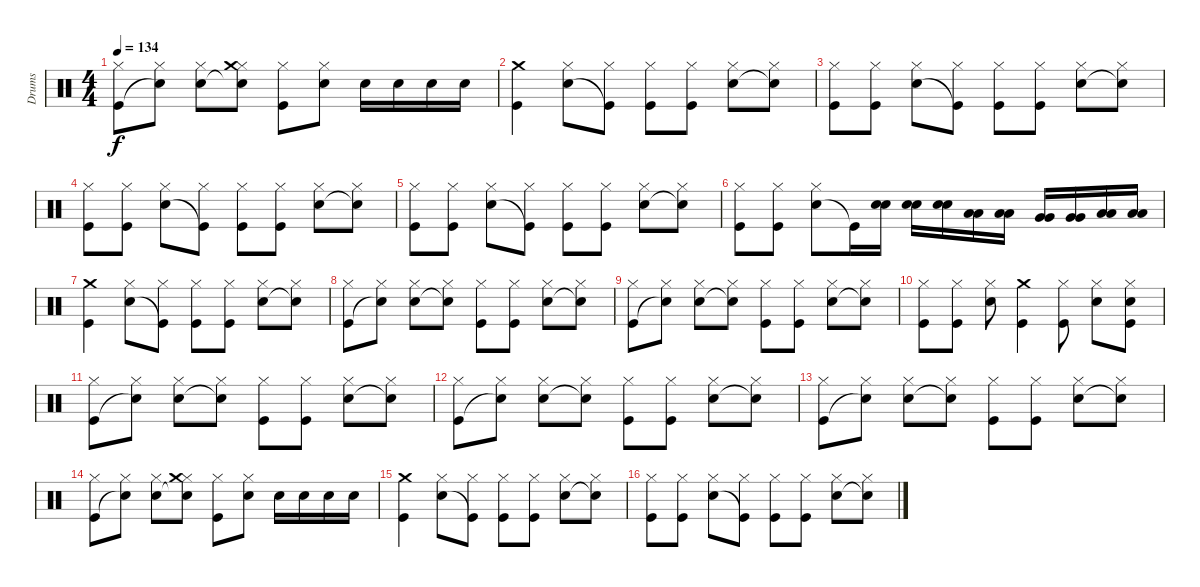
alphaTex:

\track ("Drums" "Drums") {instrument percussion}
\staff {score}
\articulation defaults
\ts (4 4)
\tempo 134
\clef neutral
\ks c
("Kick (hit)" "Hi-Hat (closed)").8{dy f} ("Snare (hit)"{t} "Hi-Hat (closed)").8 ("Snare (hit) 2" "Hi-Hat (closed)").8 ("Snare (hit)"{t} "Hi-Hat (closed)" "Crash medium (hit)").8 ("Kick (hit)" "Hi-Hat (closed)").8 ("Snare (hit) 2" "Hi-Hat (closed)").8 "Snare (hit) 2".16 "Snare (hit) 2".16 "Snare (hit) 2".16 "Snare (hit) 2".16 |
("Kick (hit)" "Crash medium (hit)").4 ("Snare (hit) 2" "Hi-Hat (closed)").8 ("Kick (hit)"{t} "Hi-Hat (closed)").8 ("Kick (hit)" "Hi-Hat (closed)").8 ("Kick (hit)" "Hi-Hat (closed)").8 ("Snare (hit) 2" "Hi-Hat (closed)").8 ("Snare (hit)"{t} "Hi-Hat (closed)").8 |
("Kick (hit)" "Hi-Hat (closed)").8 ("Kick (hit)" "Hi-Hat (closed)").8 ("Snare (hit) 2" "Hi-Hat (closed)").8 ("Kick (hit)"{t} "Hi-Hat (closed)").8 ("Kick (hit)" "Hi-Hat (closed)").8 ("Kick (hit)" "Hi-Hat (closed)").8 ("Snare (hit) 2" "Hi-Hat (closed)").8 ("Snare (hit)"{t} "Hi-Hat (closed)").8 |
("Kick (hit)" "Hi-Hat (closed)").8 ("Kick (hit)" "Hi-Hat (closed)").8 ("Snare (hit) 2" "Hi-Hat (closed)").8 ("Kick (hit)"{t} "Hi-Hat (closed)").8 ("Kick (hit)" "Hi-Hat (closed)").8 ("Kick (hit)" "Hi-Hat (closed)").8 ("Snare (hit) 2" "Hi-Hat (closed)").8 ("Snare (hit)"{t} "Hi-Hat (closed)").8 |
("Kick (hit)" "Hi-Hat (closed)").8 ("Kick (hit)" "Hi-Hat (closed)").8 ("Snare (hit) 2" "Hi-Hat (closed)").8 ("Kick (hit)"{t} "Hi-Hat (closed)").8 ("Kick (hit)" "Hi-Hat (closed)").8 ("Kick (hit)" "Hi-Hat (closed)").8 ("Snare (hit) 2" "Hi-Hat (closed)").8 ("Snare (hit)"{t} "Hi-Hat (closed)").8 |
("Kick (hit)" "Hi-Hat (closed)").8 ("Kick (hit)" "Hi-Hat (closed)").8 ("Snare (hit) 2" "Hi-Hat (closed)").8 "Kick (hit)"{t}.16 ("Snare (hit) 2" "Snare (hit) 2").16 ("Snare (hit) 2" "Snare (hit) 2").16 ("Snare (hit) 2" "Snare (hit) 2").16 ("Low Tom (hit)" "Low Tom (hit)").16 ("Low Tom (hit)" "Low Tom (hit)").16 ("Very Low Tom (hit)" "Very Low Tom (hit)").16 ("Very Low Tom (hit)" "Very Low Tom (hit)").16 ("Low Floor Tom (hit)" "Low Floor Tom (hit)").16 ("Low Floor Tom (hit)" "Low Floor Tom (hit)").16 |
("Kick (hit)" "Crash medium (hit)").4 ("Snare (hit) 2" "Hi-Hat (closed)").8 ("Kick (hit)"{t} "Hi-Hat (closed)").8 ("Kick (hit)" "Hi-Hat (closed)").8 ("Kick (hit)" "Hi-Hat (closed)").8 ("Snare (hit) 2" "Hi-Hat (closed)").8 ("Snare (hit)"{t} "Hi-Hat (closed)").8 |
("Kick (hit)" "Hi-Hat (closed)").8 ("Snare (hit)"{t} "Hi-Hat (closed)").8 ("Snare (hit) 2" "Hi-Hat (closed)").8 ("Snare (hit)"{t} "Hi-Hat (closed)").8 ("Kick (hit)" "Hi-Hat (closed)").8 ("Kick (hit)" "Hi-Hat (closed)").8 ("Snare (hit) 2" "Hi-Hat (closed)").8 ("Snare (hit)"{t} "Hi-Hat (closed)").8 |
("Kick (hit)" "Hi-Hat (closed)").8 ("Snare (hit)"{t} "Hi-Hat (closed)").8 ("Snare (hit) 2" "Hi-Hat (closed)").8 ("Snare (hit)"{t} "Hi-Hat (closed)").8 ("Kick (hit)" "Hi-Hat (closed)").8 ("Kick (hit)" "Hi-Hat (closed)").8 ("Snare (hit) 2" "Hi-Hat (closed)").8 ("Snare (hit)"{t} "Hi-Hat (closed)").8 |
("Kick (hit)" "Hi-Hat (closed)").8 ("Kick (hit)" "Hi-Hat (closed)").8 ("Snare (hit) 2" "Hi-Hat (closed)").8 ("Kick (hit)" "Crash medium (hit)").4 ("Kick (hit)" "Hi-Hat (closed)").8 ("Snare (hit) 2" "Hi-Hat (closed)").8 ("Kick (hit)" "Hi-Hat (closed)" "Snare (hit)").8 |
("Kick (hit)" "Hi-Hat (closed)").8 ("Snare (hit)"{t} "Hi-Hat (closed)").8 ("Snare (hit) 2" "Hi-Hat (closed)").8 ("Snare (hit)"{t} "Hi-Hat (closed)").8 ("Kick (hit)" "Hi-Hat (closed)").8 ("Kick (hit)" "Hi-Hat (closed)").8 ("Snare (hit) 2" "Hi-Hat (closed)").8 ("Snare (hit)"{t} "Hi-Hat (closed)").8 |
("Kick (hit)" "Hi-Hat (closed)").8 ("Snare (hit)"{t} "Hi-Hat (closed)").8 ("Snare (hit) 2" "Hi-Hat (closed)").8 ("Snare (hit)"{t} "Hi-Hat (closed)").8 ("Kick (hit)" "Hi-Hat (closed)").8 ("Kick (hit)" "Hi-Hat (closed)").8 ("Snare (hit) 2" "Hi-Hat (closed)").8 ("Snare (hit)"{t} "Hi-Hat (closed)").8 |
("Kick (hit)" "Hi-Hat (closed)").8 ("Snare (hit)"{t} "Hi-Hat (closed)").8 ("Snare (hit) 2" "Hi-Hat (closed)").8 ("Snare (hit)"{t} "Hi-Hat (closed)").8 ("Kick (hit)" "Hi-Hat (closed)").8 ("Kick (hit)" "Hi-Hat (closed)").8 ("Snare (hit) 2" "Hi-Hat (closed)").8 ("Snare (hit)"{t} "Hi-Hat (closed)").8 |
("Kick (hit)" "Hi-Hat (closed)").8 ("Snare (hit)"{t} "Hi-Hat (closed)").8 ("Snare (hit) 2" "Hi-Hat (closed)").8 ("Snare (hit)"{t} "Hi-Hat (closed)" "Crash medium (hit)").8 ("Kick (hit)" "Hi-Hat (closed)").8 ("Snare (hit) 2" "Hi-Hat (closed)").8 "Snare (hit) 2".16 "Snare (hit) 2".16 "Snare (hit) 2".16 "Snare (hit) 2".16 |
("Kick (hit)" "Crash medium (hit)").4 ("Snare (hit) 2" "Hi-Hat (closed)").8 ("Kick (hit)"{t} "Hi-Hat (closed)").8 ("Kick (hit)" "Hi-Hat (closed)").8 ("Kick (hit)" "Hi-Hat (closed)").8 ("Snare (hit) 2" "Hi-Hat (closed)").8 ("Snare (hit)"{t} "Hi-Hat (closed)").8 |
("Kick (hit)" "Hi-Hat (closed)").8 ("Kick (hit)" "Hi-Hat (closed)").8 ("Snare (hit) 2" "Hi-Hat (closed)").8 ("Kick (hit)"{t} "Hi-Hat (closed)").8 ("Kick (hit)" "Hi-Hat (closed)").8 ("Kick (hit)" "Hi-Hat (closed)").8 ("Snare (hit) 2" "Hi-Hat (closed)").8 ("Snare (hit)"{t} "Hi-Hat (closed)").8
